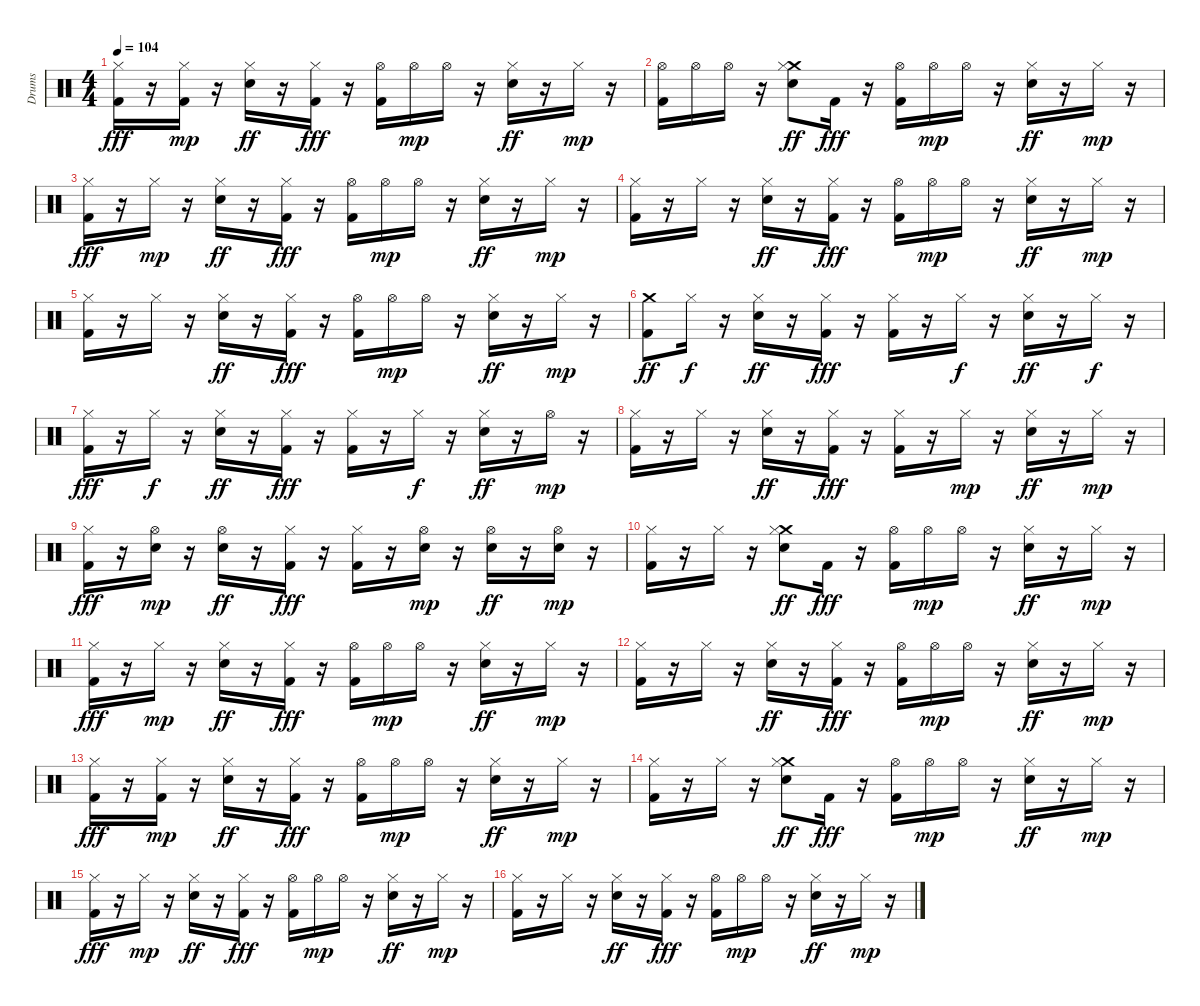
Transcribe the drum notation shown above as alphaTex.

\track ("Drums" "Drums") {instrument percussion}
\staff {score}
\articulation defaults
\ts (4 4)
\tempo 104
\clef neutral
\ks c
("Hi-Hat (closed)" "Kick (hit) 2").16{dy fff} r.16 ("Kick (hit) 2" "Hi-Hat (closed)").16{dy mp} r.16 ("Hi-Hat (closed)" "Snare (hit) 2").16{dy ff} r.16 ("Hi-Hat (closed)" "Kick (hit) 2").16{dy fff} r.16 ("Hi-Hat (open)" "Kick (hit) 2").16 "Hi-Hat (open)".16{dy mp} "Hi-Hat (open)".16 r.16 ("Hi-Hat (closed)" "Snare (hit) 2").16{dy ff} r.16 "Hi-Hat (closed)".16{dy mp} r.16 |
("Kick (hit) 2" "Hi-Hat (open)").16 "Hi-Hat (open)".16 "Hi-Hat (open)".16 r.16 ("Crash medium (hit)" "Hi-Hat (closed)" "Snare (hit) 2").8{dy ff} "Kick (hit) 2".16{dy fff} r.16 ("Hi-Hat (open)" "Kick (hit) 2").16 "Hi-Hat (open)".16{dy mp} "Hi-Hat (open)".16 r.16 ("Hi-Hat (closed)" "Snare (hit) 2").16{dy ff} r.16 "Hi-Hat (closed)".16{dy mp} r.16 |
("Hi-Hat (closed)" "Kick (hit) 2").16{dy fff} r.16 "Hi-Hat (closed)".16{dy mp} r.16 ("Hi-Hat (closed)" "Snare (hit) 2").16{dy ff} r.16 ("Hi-Hat (closed)" "Kick (hit) 2").16{dy fff} r.16 ("Hi-Hat (open)" "Kick (hit) 2").16 "Hi-Hat (open)".16{dy mp} "Hi-Hat (open)".16 r.16 ("Hi-Hat (closed)" "Snare (hit) 2").16{dy ff} r.16 "Hi-Hat (closed)".16{dy mp} r.16 |
("Kick (hit) 2" "Hi-Hat (closed)").16 r.16 "Hi-Hat (closed)".16 r.16 ("Hi-Hat (closed)" "Snare (hit) 2").16{dy ff} r.16 ("Hi-Hat (closed)" "Kick (hit) 2").16{dy fff} r.16 ("Hi-Hat (open)" "Kick (hit) 2").16 "Hi-Hat (open)".16{dy mp} "Hi-Hat (open)".16 r.16 ("Hi-Hat (closed)" "Snare (hit) 2").16{dy ff} r.16 "Hi-Hat (closed)".16{dy mp} r.16 |
("Kick (hit) 2" "Hi-Hat (closed)").16 r.16 "Hi-Hat (closed)".16 r.16 ("Hi-Hat (closed)" "Snare (hit) 2").16{dy ff} r.16 ("Hi-Hat (closed)" "Kick (hit) 2").16{dy fff} r.16 ("Hi-Hat (open)" "Kick (hit) 2").16 "Hi-Hat (open)".16{dy mp} "Hi-Hat (open)".16 r.16 ("Hi-Hat (closed)" "Snare (hit) 2").16{dy ff} r.16 "Hi-Hat (closed)".16{dy mp} r.16 |
("Kick (hit) 2" "Crash medium (hit)").8{dy ff} "Hi-Hat (closed)".16{dy f} r.16 ("Hi-Hat (closed)" "Snare (hit) 2").16{dy ff} r.16 ("Hi-Hat (closed)" "Kick (hit) 2").16{dy fff} r.16 ("Hi-Hat (closed)" "Kick (hit) 2").16 r.16 "Hi-Hat (closed)".16{dy f} r.16 ("Hi-Hat (closed)" "Snare (hit) 2").16{dy ff} r.16 "Hi-Hat (closed)".16{dy f} r.16 |
("Kick (hit) 2" "Hi-Hat (closed)").16{dy fff} r.16 "Hi-Hat (closed)".16{dy f} r.16 ("Hi-Hat (closed)" "Snare (hit) 2").16{dy ff} r.16 ("Hi-Hat (closed)" "Kick (hit) 2").16{dy fff} r.16 ("Hi-Hat (closed)" "Kick (hit) 2").16 r.16 "Hi-Hat (closed)".16{dy f} r.16 ("Hi-Hat (closed)" "Snare (hit) 2").16{dy ff} r.16 "Hi-Hat (open)".16{dy mp} r.16 |
("Kick (hit) 2" "Hi-Hat (closed)").16 r.16 "Hi-Hat (closed)".16 r.16 ("Hi-Hat (closed)" "Snare (hit) 2").16{dy ff} r.16 ("Hi-Hat (closed)" "Kick (hit) 2").16{dy fff} r.16 ("Hi-Hat (closed)" "Kick (hit) 2").16 r.16 "Hi-Hat (closed)".16{dy mp} r.16 ("Hi-Hat (closed)" "Snare (hit) 2").16{dy ff} r.16 "Hi-Hat (closed)".16{dy mp} r.16 |
("Hi-Hat (closed)" "Kick (hit) 2").16{dy fff} r.16 ("Snare (hit) 2" "Hi-Hat (open)").16{dy mp} r.16 ("Hi-Hat (open)" "Snare (hit) 2").16{dy ff} r.16 ("Hi-Hat (closed)" "Kick (hit) 2").16{dy fff} r.16 ("Hi-Hat (closed)" "Kick (hit) 2").16 r.16 ("Snare (hit) 2" "Hi-Hat (open)").16{dy mp} r.16 ("Hi-Hat (open)" "Snare (hit) 2").16{dy ff} r.16 ("Snare (hit) 2" "Hi-Hat (open)").16{dy mp} r.16 |
("Kick (hit) 2" "Hi-Hat (closed)").16 r.16 "Hi-Hat (closed)".16 r.16 ("Crash medium (hit)" "Hi-Hat (closed)" "Snare (hit) 2").8{dy ff} "Kick (hit) 2".16{dy fff} r.16 ("Hi-Hat (open)" "Kick (hit) 2").16 "Hi-Hat (open)".16{dy mp} "Hi-Hat (open)".16 r.16 ("Hi-Hat (closed)" "Snare (hit) 2").16{dy ff} r.16 "Hi-Hat (closed)".16{dy mp} r.16 |
("Hi-Hat (closed)" "Kick (hit) 2").16{dy fff} r.16 "Hi-Hat (closed)".16{dy mp} r.16 ("Hi-Hat (closed)" "Snare (hit) 2").16{dy ff} r.16 ("Hi-Hat (closed)" "Kick (hit) 2").16{dy fff} r.16 ("Hi-Hat (open)" "Kick (hit) 2").16 "Hi-Hat (open)".16{dy mp} "Hi-Hat (open)".16 r.16 ("Hi-Hat (closed)" "Snare (hit) 2").16{dy ff} r.16 "Hi-Hat (closed)".16{dy mp} r.16 |
("Kick (hit) 2" "Hi-Hat (closed)").16 r.16 "Hi-Hat (closed)".16 r.16 ("Hi-Hat (closed)" "Snare (hit) 2").16{dy ff} r.16 ("Hi-Hat (closed)" "Kick (hit) 2").16{dy fff} r.16 ("Hi-Hat (open)" "Kick (hit) 2").16 "Hi-Hat (open)".16{dy mp} "Hi-Hat (open)".16 r.16 ("Hi-Hat (closed)" "Snare (hit) 2").16{dy ff} r.16 "Hi-Hat (closed)".16{dy mp} r.16 |
("Hi-Hat (closed)" "Kick (hit) 2").16{dy fff} r.16 ("Kick (hit) 2" "Hi-Hat (closed)").16{dy mp} r.16 ("Hi-Hat (closed)" "Snare (hit) 2").16{dy ff} r.16 ("Hi-Hat (closed)" "Kick (hit) 2").16{dy fff} r.16 ("Hi-Hat (open)" "Kick (hit) 2").16 "Hi-Hat (open)".16{dy mp} "Hi-Hat (open)".16 r.16 ("Hi-Hat (closed)" "Snare (hit) 2").16{dy ff} r.16 "Hi-Hat (closed)".16{dy mp} r.16 |
("Kick (hit) 2" "Hi-Hat (closed)").16 r.16 "Hi-Hat (closed)".16 r.16 ("Crash medium (hit)" "Hi-Hat (closed)" "Snare (hit) 2").8{dy ff} "Kick (hit) 2".16{dy fff} r.16 ("Hi-Hat (open)" "Kick (hit) 2").16 "Hi-Hat (open)".16{dy mp} "Hi-Hat (open)".16 r.16 ("Hi-Hat (closed)" "Snare (hit) 2").16{dy ff} r.16 "Hi-Hat (closed)".16{dy mp} r.16 |
("Hi-Hat (closed)" "Kick (hit) 2").16{dy fff} r.16 "Hi-Hat (closed)".16{dy mp} r.16 ("Hi-Hat (closed)" "Snare (hit) 2").16{dy ff} r.16 ("Hi-Hat (closed)" "Kick (hit) 2").16{dy fff} r.16 ("Hi-Hat (open)" "Kick (hit) 2").16 "Hi-Hat (open)".16{dy mp} "Hi-Hat (open)".16 r.16 ("Hi-Hat (closed)" "Snare (hit) 2").16{dy ff} r.16 "Hi-Hat (closed)".16{dy mp} r.16 |
("Kick (hit) 2" "Hi-Hat (closed)").16 r.16 "Hi-Hat (closed)".16 r.16 ("Hi-Hat (closed)" "Snare (hit) 2").16{dy ff} r.16 ("Hi-Hat (closed)" "Kick (hit) 2").16{dy fff} r.16 ("Hi-Hat (open)" "Kick (hit) 2").16 "Hi-Hat (open)".16{dy mp} "Hi-Hat (open)".16 r.16 ("Hi-Hat (closed)" "Snare (hit) 2").16{dy ff} r.16 "Hi-Hat (closed)".16{dy mp} r.16
